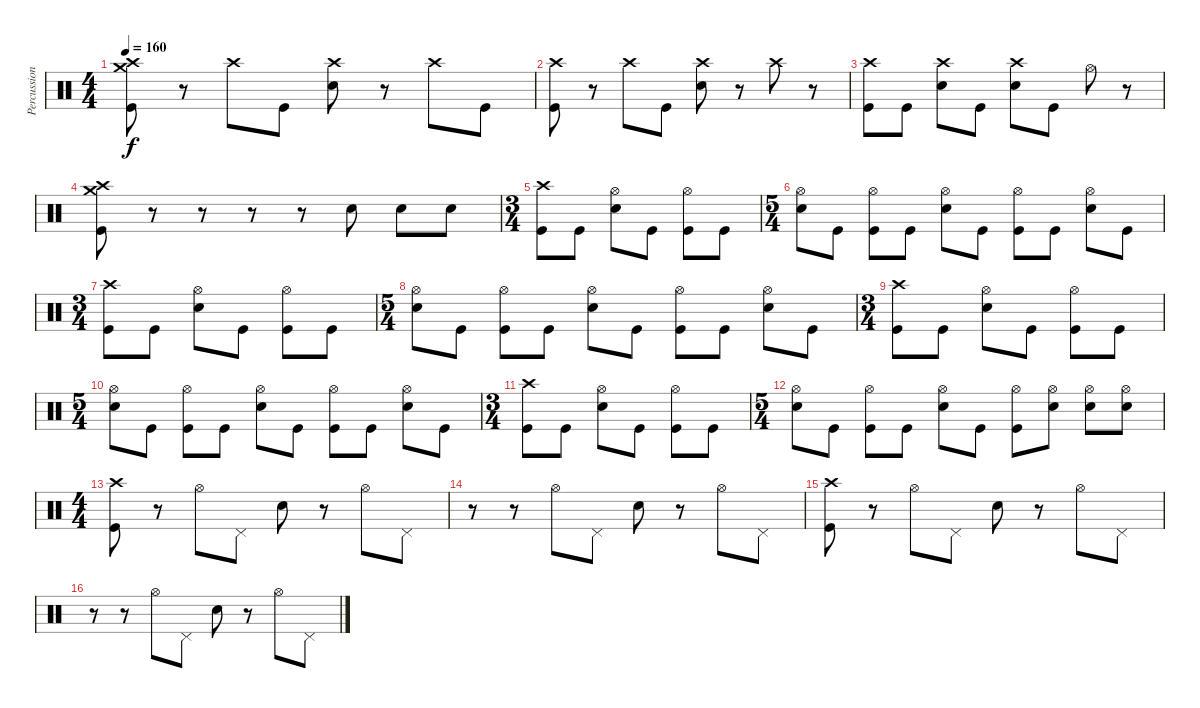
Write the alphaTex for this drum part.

\track ("Percussion" "Percussion") {instrument percussion}
\staff {score}
\articulation defaults
\ts (4 4)
\tempo 160
\clef neutral
\ks c
("Crash high (hit)" "Crash medium (hit)" "Kick (hit)").8{dy f} r.8 "Crash high (hit)".8 "Kick (hit)".8 ("Crash high (hit)" "Snare (hit) 2").8 r.8 "Crash high (hit)".8 "Kick (hit)".8 |
("Crash high (hit)" "Kick (hit)").8 r.8 "Crash high (hit)".8 "Kick (hit)".8 ("Crash high (hit)" "Snare (hit) 2").8 r.8 "Crash high (hit)".8 r.8 |
("Crash high (hit)" "Kick (hit)").8 "Kick (hit)".8 ("Crash high (hit)" "Snare (hit) 2").8 "Kick (hit)".8 ("Crash high (hit)" "Snare (hit) 2").8 "Kick (hit)".8 "Hi-Hat (open)".8 r.8 |
("Crash medium (hit)" "Crash high (hit)" "Kick (hit)").8 r.8 r.8 r.8 r.8 "Hand Clap (hit)".8 "Hand Clap (hit)".8 "Hand Clap (hit)".8 |
\ts (3 4)
("Crash high (hit)" "Kick (hit)").8 "Kick (hit)".8 ("Hi-Hat (open)" "Snare (hit) 2").8 "Kick (hit)".8 ("Hi-Hat (open)" "Kick (hit)").8 "Kick (hit)".8 |
\ts (5 4)
("Hi-Hat (open)" "Snare (hit) 2").8 "Kick (hit)".8 ("Hi-Hat (open)" "Kick (hit)").8 "Kick (hit)".8 ("Hi-Hat (open)" "Snare (hit) 2").8 "Kick (hit)".8 ("Hi-Hat (open)" "Kick (hit)").8 "Kick (hit)".8 ("Hi-Hat (open)" "Snare (hit) 2").8 "Kick (hit)".8 |
\ts (3 4)
("Crash high (hit)" "Kick (hit)").8 "Kick (hit)".8 ("Hi-Hat (open)" "Snare (hit) 2").8 "Kick (hit)".8 ("Hi-Hat (open)" "Kick (hit)").8 "Kick (hit)".8 |
\ts (5 4)
("Hi-Hat (open)" "Snare (hit) 2").8 "Kick (hit)".8 ("Hi-Hat (open)" "Kick (hit)").8 "Kick (hit)".8 ("Hi-Hat (open)" "Snare (hit) 2").8 "Kick (hit)".8 ("Hi-Hat (open)" "Kick (hit)").8 "Kick (hit)".8 ("Hi-Hat (open)" "Snare (hit) 2").8 "Kick (hit)".8 |
\ts (3 4)
("Crash high (hit)" "Kick (hit)").8 "Kick (hit)".8 ("Hi-Hat (open)" "Snare (hit) 2").8 "Kick (hit)".8 ("Hi-Hat (open)" "Kick (hit)").8 "Kick (hit)".8 |
\ts (5 4)
("Hi-Hat (open)" "Snare (hit) 2").8 "Kick (hit)".8 ("Hi-Hat (open)" "Kick (hit)").8 "Kick (hit)".8 ("Hi-Hat (open)" "Snare (hit) 2").8 "Kick (hit)".8 ("Hi-Hat (open)" "Kick (hit)").8 "Kick (hit)".8 ("Hi-Hat (open)" "Snare (hit) 2").8 "Kick (hit)".8 |
\ts (3 4)
("Crash high (hit)" "Kick (hit)").8 "Kick (hit)".8 ("Hi-Hat (open)" "Snare (hit) 2").8 "Kick (hit)".8 ("Hi-Hat (open)" "Kick (hit)").8 "Kick (hit)".8 |
\ts (5 4)
("Hi-Hat (open)" "Snare (hit) 2").8 "Kick (hit)".8 ("Hi-Hat (open)" "Kick (hit)").8 "Kick (hit)".8 ("Hi-Hat (open)" "Snare (hit) 2").8 "Kick (hit)".8 ("Hi-Hat (open)" "Kick (hit)").8 ("Hi-Hat (open)" "Snare (hit) 2").8 ("Hi-Hat (open)" "Snare (hit) 2").8 ("Hi-Hat (open)" "Snare (hit) 2").8 |
\ts (4 4)
("Crash high (hit)" "Kick (hit)").8 r.8 "Hi-Hat (open)".8 "Pedal Hi-Hat (hit)".8 "Snare (hit) 2".8 r.8 "Hi-Hat (open)".8 "Pedal Hi-Hat (hit)".8 |
r.8 r.8 "Hi-Hat (open)".8 "Pedal Hi-Hat (hit)".8 "Snare (hit) 2".8 r.8 "Hi-Hat (open)".8 "Pedal Hi-Hat (hit)".8 |
("Crash high (hit)" "Kick (hit)").8 r.8 "Hi-Hat (open)".8 "Pedal Hi-Hat (hit)".8 "Snare (hit) 2".8 r.8 "Hi-Hat (open)".8 "Pedal Hi-Hat (hit)".8 |
r.8 r.8 "Hi-Hat (open)".8 "Pedal Hi-Hat (hit)".8 "Snare (hit) 2".8 r.8 "Hi-Hat (open)".8 "Pedal Hi-Hat (hit)".8
